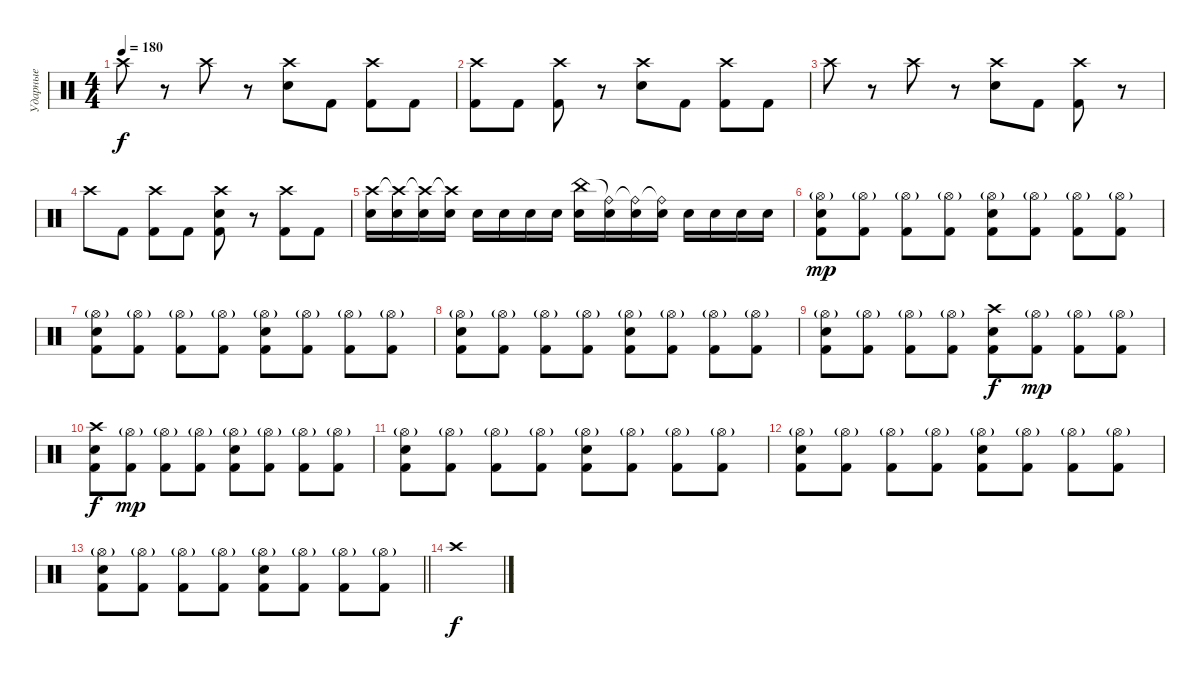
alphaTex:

\track ("Ударные" "Ударные") {instrument percussion}
\staff {score}
\articulation defaults
\ts (4 4)
\tempo 180
\clef neutral
\ks c "Crash high (hit)".8{dy f}
r.8 "Crash high (hit)".8 r.8 ("Crash high (hit)" "Electric Snare (hit)").8 "Kick (hit) 2".8 ("Crash high (hit)" "Kick (hit) 2").8 "Kick (hit) 2".8 |
("Crash high (hit)" "Kick (hit) 2").8 "Kick (hit) 2".8 ("Crash high (hit)" "Kick (hit) 2").8 r.8 ("Crash high (hit)" "Electric Snare (hit)").8 "Kick (hit) 2".8 ("Crash high (hit)" "Kick (hit) 2").8 "Kick (hit) 2".8 |
"Crash high (hit)".8 r.8 "Crash high (hit)".8 r.8 ("Crash high (hit)" "Electric Snare (hit)").8 "Kick (hit) 2".8 ("Crash high (hit)" "Kick (hit) 2").8 r.8 |
"Crash high (hit)".8 "Kick (hit) 2".8 ("Crash high (hit)" "Kick (hit) 2").8 "Kick (hit) 2".8 ("Crash high (hit)" "Electric Snare (hit)" "Kick (hit) 2").8 r.8 ("Crash high (hit)" "Kick (hit) 2").8 "Kick (hit) 2".8 |
("Crash high (hit)" "Electric Snare (hit)").16 ("Crash high (hit)"{t} "Electric Snare (hit)").16 ("Crash high (hit)"{t} "Electric Snare (hit)").16 ("Crash high (hit)"{t} "Electric Snare (hit)").16 "Electric Snare (hit)".16 "Electric Snare (hit)".16 "Electric Snare (hit)".16 "Electric Snare (hit)".16 ("China (hit)" "Snare (hit) 2").16 ("Ride (bell)"{t} "Snare (hit) 2").16 ("Ride (bell)"{t} "Snare (hit) 2").16 ("Ride (bell)"{t} "Snare (hit) 2").16 "Snare (hit) 2".16 "Snare (hit) 2".16 "Snare (hit) 2".16 "Snare (hit) 2".16 |
("Hi-Hat (open)"{g} "Electric Snare (hit)" "Kick (hit) 2").8{dy mp} ("Hi-Hat (open)"{g} "Kick (hit) 2").8 ("Hi-Hat (open)"{g} "Kick (hit) 2").8 ("Hi-Hat (open)"{g} "Kick (hit) 2").8 ("Hi-Hat (open)"{g} "Electric Snare (hit)" "Kick (hit) 2").8 ("Hi-Hat (open)"{g} "Kick (hit) 2").8 ("Hi-Hat (open)"{g} "Kick (hit) 2").8 ("Hi-Hat (open)"{g} "Kick (hit) 2").8 |
("Hi-Hat (open)"{g} "Electric Snare (hit)" "Kick (hit) 2").8 ("Hi-Hat (open)"{g} "Kick (hit) 2").8 ("Hi-Hat (open)"{g} "Kick (hit) 2").8 ("Hi-Hat (open)"{g} "Kick (hit) 2").8 ("Hi-Hat (open)"{g} "Electric Snare (hit)" "Kick (hit) 2").8 ("Hi-Hat (open)"{g} "Kick (hit) 2").8 ("Hi-Hat (open)"{g} "Kick (hit) 2").8 ("Hi-Hat (open)"{g} "Kick (hit) 2").8 |
("Hi-Hat (open)"{g} "Electric Snare (hit)" "Kick (hit) 2").8 ("Hi-Hat (open)"{g} "Kick (hit) 2").8 ("Hi-Hat (open)"{g} "Kick (hit) 2").8 ("Hi-Hat (open)"{g} "Kick (hit) 2").8 ("Hi-Hat (open)"{g} "Electric Snare (hit)" "Kick (hit) 2").8 ("Hi-Hat (open)"{g} "Kick (hit) 2").8 ("Hi-Hat (open)"{g} "Kick (hit) 2").8 ("Hi-Hat (open)"{g} "Kick (hit) 2").8 |
("Hi-Hat (open)"{g} "Electric Snare (hit)" "Kick (hit) 2").8 ("Hi-Hat (open)"{g} "Kick (hit) 2").8 ("Hi-Hat (open)"{g} "Kick (hit) 2").8 ("Hi-Hat (open)"{g} "Kick (hit) 2").8 ("Crash high (hit)" "Electric Snare (hit)" "Kick (hit) 2").8{dy f} ("Hi-Hat (open)"{g} "Kick (hit) 2").8{dy mp} ("Hi-Hat (open)"{g} "Kick (hit) 2").8 ("Hi-Hat (open)"{g} "Kick (hit) 2").8 |
("Crash high (hit)" "Electric Snare (hit)" "Kick (hit) 2").8{dy f} ("Hi-Hat (open)"{g} "Kick (hit) 2").8{dy mp} ("Hi-Hat (open)"{g} "Kick (hit) 2").8 ("Hi-Hat (open)"{g} "Kick (hit) 2").8 ("Hi-Hat (open)"{g} "Electric Snare (hit)" "Kick (hit) 2").8 ("Hi-Hat (open)"{g} "Kick (hit) 2").8 ("Hi-Hat (open)"{g} "Kick (hit) 2").8 ("Hi-Hat (open)"{g} "Kick (hit) 2").8 |
("Hi-Hat (open)"{g} "Electric Snare (hit)" "Kick (hit) 2").8 ("Hi-Hat (open)"{g} "Kick (hit) 2").8 ("Hi-Hat (open)"{g} "Kick (hit) 2").8 ("Hi-Hat (open)"{g} "Kick (hit) 2").8 ("Hi-Hat (open)"{g} "Electric Snare (hit)" "Kick (hit) 2").8 ("Hi-Hat (open)"{g} "Kick (hit) 2").8 ("Hi-Hat (open)"{g} "Kick (hit) 2").8 ("Hi-Hat (open)"{g} "Kick (hit) 2").8 |
("Hi-Hat (open)"{g} "Electric Snare (hit)" "Kick (hit) 2").8 ("Hi-Hat (open)"{g} "Kick (hit) 2").8 ("Hi-Hat (open)"{g} "Kick (hit) 2").8 ("Hi-Hat (open)"{g} "Kick (hit) 2").8 ("Hi-Hat (open)"{g} "Electric Snare (hit)" "Kick (hit) 2").8 ("Hi-Hat (open)"{g} "Kick (hit) 2").8 ("Hi-Hat (open)"{g} "Kick (hit) 2").8 ("Hi-Hat (open)"{g} "Kick (hit) 2").8 |
\barLineRight lightlight
("Hi-Hat (open)"{g} "Electric Snare (hit)" "Kick (hit) 2").8 ("Hi-Hat (open)"{g} "Kick (hit) 2").8 ("Hi-Hat (open)"{g} "Kick (hit) 2").8 ("Hi-Hat (open)"{g} "Kick (hit) 2").8 ("Hi-Hat (open)"{g} "Electric Snare (hit)" "Kick (hit) 2").8 ("Hi-Hat (open)"{g} "Kick (hit) 2").8 ("Hi-Hat (open)"{g} "Kick (hit) 2").8 ("Hi-Hat (open)"{g} "Kick (hit) 2").8 |
\section ("" "")
"Crash high (hit)".1{dy f}
